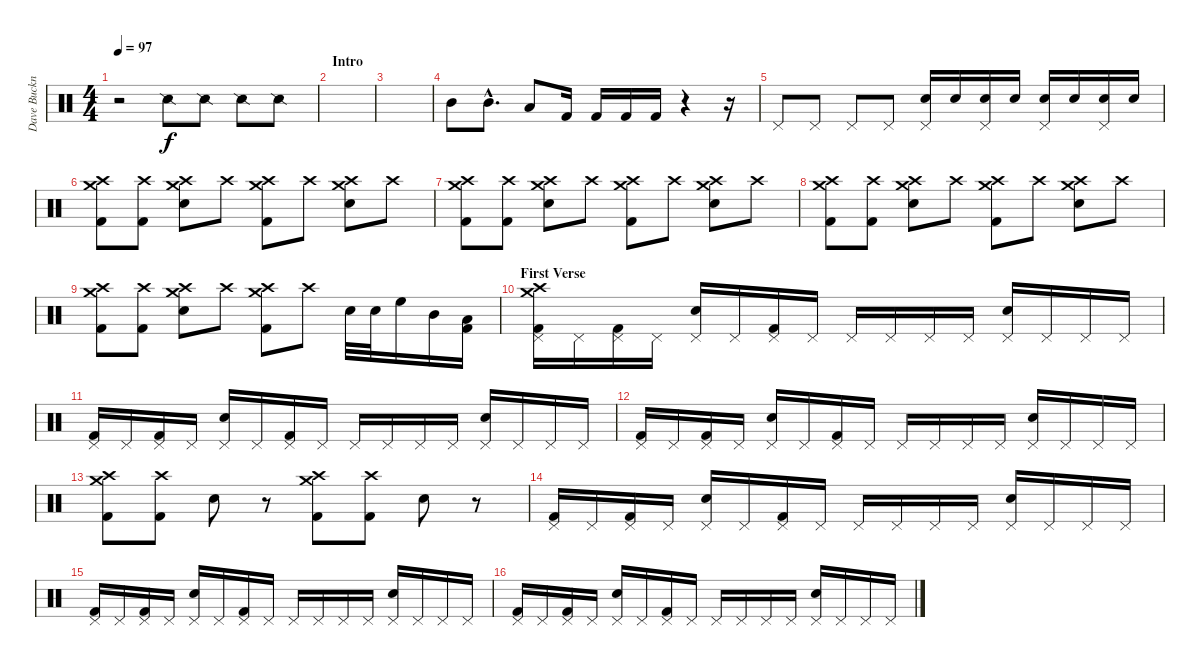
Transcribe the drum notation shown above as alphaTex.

\track ("Dave Buckner" "Dave Buckn") {instrument percussion}
\staff {score}
\articulation defaults
\ts (4 4)
\tempo 97
\clef neutral
\ks c
r.2{dy f} "Snare (side stick) 2".8 "Snare (side stick) 2".8 "Snare (side stick) 2".8 "Snare (side stick) 2".8 |
\section ("" "Intro")
|
|
"Mid Tom (hit)".8 "Mid Tom (hit)"{hac}.8{d} "Low Tom (hit)".8 "Kick (hit) 2".16 "Kick (hit) 2".16 "Kick (hit) 2".16 "Kick (hit) 2".16 r.4 r.16 |
"Pedal Hi-Hat (hit)".8{volume 10} "Pedal Hi-Hat (hit)".8 "Pedal Hi-Hat (hit)".8 "Pedal Hi-Hat (hit)".8 ("Pedal Hi-Hat (hit)" "Snare (hit) 2").16{volume 3} "Snare (hit) 2".16{volume 7} ("Pedal Hi-Hat (hit)" "Snare (hit) 2").16{volume 9} "Snare (hit) 2".16{volume 11} ("Pedal Hi-Hat (hit)" "Snare (hit) 2").16{volume 12} "Snare (hit) 2".16{volume 13} ("Pedal Hi-Hat (hit)" "Snare (hit) 2").16{volume 14} "Snare (hit) 2".16{volume 16} |
("Crash medium (hit)" "Crash high (hit)" "Kick (hit) 2").8 ("Crash high (hit)" "Kick (hit) 2").8 ("Crash medium (hit)" "Crash high (hit)" "Snare (hit) 2").8 "Crash high (hit)".8 ("Crash medium (hit)" "Crash high (hit)" "Kick (hit) 2").8 "Crash high (hit)".8 ("Crash medium (hit)" "Crash high (hit)" "Snare (hit) 2").8 "Crash high (hit)".8 |
("Crash medium (hit)" "Crash high (hit)" "Kick (hit) 2").8 ("Crash high (hit)" "Kick (hit) 2").8 ("Crash medium (hit)" "Crash high (hit)" "Snare (hit) 2").8 "Crash high (hit)".8 ("Crash medium (hit)" "Crash high (hit)" "Kick (hit) 2").8 "Crash high (hit)".8 ("Crash medium (hit)" "Crash high (hit)" "Snare (hit) 2").8 "Crash high (hit)".8 |
("Crash medium (hit)" "Crash high (hit)" "Kick (hit) 2").8 ("Crash high (hit)" "Kick (hit) 2").8 ("Crash medium (hit)" "Crash high (hit)" "Snare (hit) 2").8 "Crash high (hit)".8 ("Crash medium (hit)" "Crash high (hit)" "Kick (hit) 2").8 "Crash high (hit)".8 ("Crash medium (hit)" "Crash high (hit)" "Snare (hit) 2").8 "Crash high (hit)".8 |
("Crash medium (hit)" "Crash high (hit)" "Kick (hit) 2").8 ("Crash high (hit)" "Kick (hit) 2").8 ("Crash medium (hit)" "Crash high (hit)" "Snare (hit) 2").8 "Crash high (hit)".8 ("Crash medium (hit)" "Crash high (hit)" "Kick (hit) 2").8 "Crash high (hit)".8 "Snare (hit) 2".32 "Snare (hit) 2".32 "High Floor Tom (hit)".16 "Mid Tom (hit)".16 ("Low Tom (hit)" "Kick (hit) 2").16 |
\section ("" "First Verse")
("Crash medium (hit)" "Crash high (hit)" "Pedal Hi-Hat (hit)" "Kick (hit) 2").16 "Pedal Hi-Hat (hit)".16 ("Pedal Hi-Hat (hit)" "Kick (hit) 2").16 "Pedal Hi-Hat (hit)".16 ("Pedal Hi-Hat (hit)" "Snare (hit) 2").16 "Pedal Hi-Hat (hit)".16 ("Pedal Hi-Hat (hit)" "Kick (hit) 2").16 "Pedal Hi-Hat (hit)".16 "Pedal Hi-Hat (hit)".16 "Pedal Hi-Hat (hit)".16 "Pedal Hi-Hat (hit)".16 "Pedal Hi-Hat (hit)".16 ("Pedal Hi-Hat (hit)" "Snare (hit) 2").16 "Pedal Hi-Hat (hit)".16 "Pedal Hi-Hat (hit)".16 "Pedal Hi-Hat (hit)".16 |
("Pedal Hi-Hat (hit)" "Kick (hit) 2").16 "Pedal Hi-Hat (hit)".16 ("Pedal Hi-Hat (hit)" "Kick (hit) 2").16 "Pedal Hi-Hat (hit)".16 ("Pedal Hi-Hat (hit)" "Snare (hit) 2").16 "Pedal Hi-Hat (hit)".16 ("Pedal Hi-Hat (hit)" "Kick (hit) 2").16 "Pedal Hi-Hat (hit)".16 "Pedal Hi-Hat (hit)".16 "Pedal Hi-Hat (hit)".16 "Pedal Hi-Hat (hit)".16 "Pedal Hi-Hat (hit)".16 ("Pedal Hi-Hat (hit)" "Snare (hit) 2").16 "Pedal Hi-Hat (hit)".16 "Pedal Hi-Hat (hit)".16 "Pedal Hi-Hat (hit)".16 |
("Pedal Hi-Hat (hit)" "Kick (hit) 2").16 "Pedal Hi-Hat (hit)".16 ("Pedal Hi-Hat (hit)" "Kick (hit) 2").16 "Pedal Hi-Hat (hit)".16 ("Pedal Hi-Hat (hit)" "Snare (hit) 2").16 "Pedal Hi-Hat (hit)".16 ("Pedal Hi-Hat (hit)" "Kick (hit) 2").16 "Pedal Hi-Hat (hit)".16 "Pedal Hi-Hat (hit)".16 "Pedal Hi-Hat (hit)".16 "Pedal Hi-Hat (hit)".16 "Pedal Hi-Hat (hit)".16 ("Pedal Hi-Hat (hit)" "Snare (hit) 2").16 "Pedal Hi-Hat (hit)".16 "Pedal Hi-Hat (hit)".16 "Pedal Hi-Hat (hit)".16 |
("Crash medium (hit)" "Crash high (hit)" "Kick (hit) 2").8 ("Crash high (hit)" "Kick (hit) 2").8 "Snare (hit) 2".8 r.8 ("Crash medium (hit)" "Crash high (hit)" "Kick (hit) 2").8 ("Crash high (hit)" "Kick (hit) 2").8 "Snare (hit) 2".8 r.8 |
("Pedal Hi-Hat (hit)" "Kick (hit) 2").16 "Pedal Hi-Hat (hit)".16 ("Pedal Hi-Hat (hit)" "Kick (hit) 2").16 "Pedal Hi-Hat (hit)".16 ("Pedal Hi-Hat (hit)" "Snare (hit) 2").16 "Pedal Hi-Hat (hit)".16 ("Pedal Hi-Hat (hit)" "Kick (hit) 2").16 "Pedal Hi-Hat (hit)".16 "Pedal Hi-Hat (hit)".16 "Pedal Hi-Hat (hit)".16 "Pedal Hi-Hat (hit)".16 "Pedal Hi-Hat (hit)".16 ("Pedal Hi-Hat (hit)" "Snare (hit) 2").16 "Pedal Hi-Hat (hit)".16 "Pedal Hi-Hat (hit)".16 "Pedal Hi-Hat (hit)".16 |
("Pedal Hi-Hat (hit)" "Kick (hit) 2").16 "Pedal Hi-Hat (hit)".16 ("Pedal Hi-Hat (hit)" "Kick (hit) 2").16 "Pedal Hi-Hat (hit)".16 ("Pedal Hi-Hat (hit)" "Snare (hit) 2").16 "Pedal Hi-Hat (hit)".16 ("Pedal Hi-Hat (hit)" "Kick (hit) 2").16 "Pedal Hi-Hat (hit)".16 "Pedal Hi-Hat (hit)".16 "Pedal Hi-Hat (hit)".16 "Pedal Hi-Hat (hit)".16 "Pedal Hi-Hat (hit)".16 ("Pedal Hi-Hat (hit)" "Snare (hit) 2").16 "Pedal Hi-Hat (hit)".16 "Pedal Hi-Hat (hit)".16 "Pedal Hi-Hat (hit)".16 |
("Pedal Hi-Hat (hit)" "Kick (hit) 2").16 "Pedal Hi-Hat (hit)".16 ("Pedal Hi-Hat (hit)" "Kick (hit) 2").16 "Pedal Hi-Hat (hit)".16 ("Pedal Hi-Hat (hit)" "Snare (hit) 2").16 "Pedal Hi-Hat (hit)".16 ("Pedal Hi-Hat (hit)" "Kick (hit) 2").16 "Pedal Hi-Hat (hit)".16 "Pedal Hi-Hat (hit)".16 "Pedal Hi-Hat (hit)".16 "Pedal Hi-Hat (hit)".16 "Pedal Hi-Hat (hit)".16 ("Pedal Hi-Hat (hit)" "Snare (hit) 2").16 "Pedal Hi-Hat (hit)".16 "Pedal Hi-Hat (hit)".16 "Pedal Hi-Hat (hit)".16
